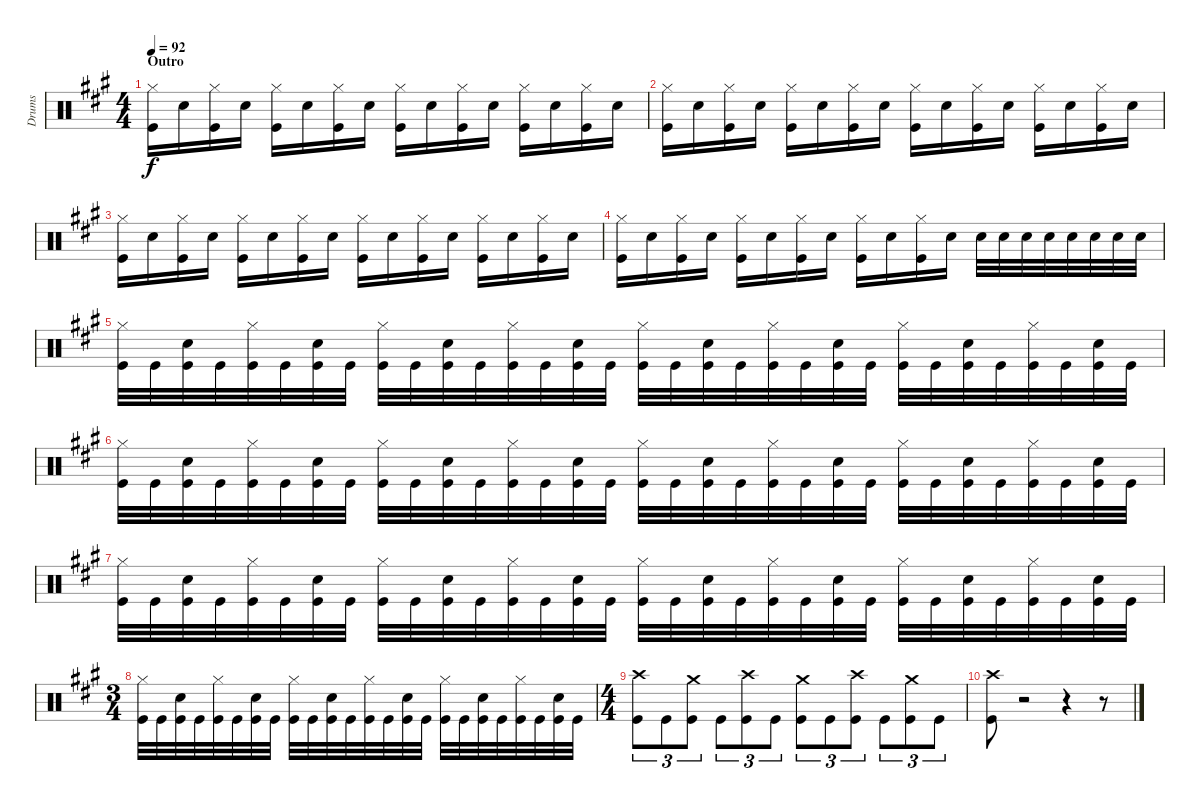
\track ("Drums" "Drums") {instrument percussion}
\staff {score}
\articulation defaults
\ts (4 4)
\section ("" "Outro")
\tempo 92
\clef neutral
\ks f#minor
("Hi-Hat (closed)" "Kick (hit)").16{dy f} "Snare (hit) 2".16 ("Hi-Hat (closed)" "Kick (hit)").16 "Snare (hit) 2".16 ("Hi-Hat (closed)" "Kick (hit)").16 "Snare (hit) 2".16 ("Hi-Hat (closed)" "Kick (hit)").16 "Snare (hit) 2".16 ("Hi-Hat (closed)" "Kick (hit)").16 "Snare (hit) 2".16 ("Hi-Hat (closed)" "Kick (hit)").16 "Snare (hit) 2".16 ("Hi-Hat (closed)" "Kick (hit)").16 "Snare (hit) 2".16 ("Hi-Hat (closed)" "Kick (hit)").16 "Snare (hit) 2".16 |
("Hi-Hat (closed)" "Kick (hit)").16 "Snare (hit) 2".16 ("Hi-Hat (closed)" "Kick (hit)").16 "Snare (hit) 2".16 ("Hi-Hat (closed)" "Kick (hit)").16 "Snare (hit) 2".16 ("Hi-Hat (closed)" "Kick (hit)").16 "Snare (hit) 2".16 ("Hi-Hat (closed)" "Kick (hit)").16 "Snare (hit) 2".16 ("Hi-Hat (closed)" "Kick (hit)").16 "Snare (hit) 2".16 ("Hi-Hat (closed)" "Kick (hit)").16 "Snare (hit) 2".16 ("Hi-Hat (closed)" "Kick (hit)").16 "Snare (hit) 2".16 |
("Hi-Hat (closed)" "Kick (hit)").16 "Snare (hit) 2".16 ("Hi-Hat (closed)" "Kick (hit)").16 "Snare (hit) 2".16 ("Hi-Hat (closed)" "Kick (hit)").16 "Snare (hit) 2".16 ("Hi-Hat (closed)" "Kick (hit)").16 "Snare (hit) 2".16 ("Hi-Hat (closed)" "Kick (hit)").16 "Snare (hit) 2".16 ("Hi-Hat (closed)" "Kick (hit)").16 "Snare (hit) 2".16 ("Hi-Hat (closed)" "Kick (hit)").16 "Snare (hit) 2".16 ("Hi-Hat (closed)" "Kick (hit)").16 "Snare (hit) 2".16 |
("Hi-Hat (closed)" "Kick (hit)").16 "Snare (hit) 2".16 ("Hi-Hat (closed)" "Kick (hit)").16 "Snare (hit) 2".16 ("Hi-Hat (closed)" "Kick (hit)").16 "Snare (hit) 2".16 ("Hi-Hat (closed)" "Kick (hit)").16 "Snare (hit) 2".16 ("Hi-Hat (closed)" "Kick (hit)").16 "Snare (hit) 2".16 ("Hi-Hat (closed)" "Kick (hit)").16 "Snare (hit) 2".16 "Snare (hit) 2".32 "Snare (hit) 2".32 "Snare (hit) 2".32 "Snare (hit) 2".32 "Snare (hit) 2".32 "Snare (hit) 2".32 "Snare (hit) 2".32 "Snare (hit) 2".32 |
("Hi-Hat (closed)" "Kick (hit)").32 "Kick (hit)".32 ("Snare (hit) 2" "Kick (hit)").32 "Kick (hit)".32 ("Hi-Hat (closed)" "Kick (hit)").32 "Kick (hit)".32 ("Snare (hit) 2" "Kick (hit)").32 "Kick (hit)".32 ("Hi-Hat (closed)" "Kick (hit)").32 "Kick (hit)".32 ("Snare (hit) 2" "Kick (hit)").32 "Kick (hit)".32 ("Hi-Hat (closed)" "Kick (hit)").32 "Kick (hit)".32 ("Snare (hit) 2" "Kick (hit)").32 "Kick (hit)".32 ("Hi-Hat (closed)" "Kick (hit)").32 "Kick (hit)".32 ("Snare (hit) 2" "Kick (hit)").32 "Kick (hit)".32 ("Hi-Hat (closed)" "Kick (hit)").32 "Kick (hit)".32 ("Snare (hit) 2" "Kick (hit)").32 "Kick (hit)".32 ("Hi-Hat (closed)" "Kick (hit)").32 "Kick (hit)".32 ("Snare (hit) 2" "Kick (hit)").32 "Kick (hit)".32 ("Hi-Hat (closed)" "Kick (hit)").32 "Kick (hit)".32 ("Snare (hit) 2" "Kick (hit)").32 "Kick (hit)".32 |
("Hi-Hat (closed)" "Kick (hit)").32 "Kick (hit)".32 ("Snare (hit) 2" "Kick (hit)").32 "Kick (hit)".32 ("Hi-Hat (closed)" "Kick (hit)").32 "Kick (hit)".32 ("Snare (hit) 2" "Kick (hit)").32 "Kick (hit)".32 ("Hi-Hat (closed)" "Kick (hit)").32 "Kick (hit)".32 ("Snare (hit) 2" "Kick (hit)").32 "Kick (hit)".32 ("Hi-Hat (closed)" "Kick (hit)").32 "Kick (hit)".32 ("Snare (hit) 2" "Kick (hit)").32 "Kick (hit)".32 ("Hi-Hat (closed)" "Kick (hit)").32 "Kick (hit)".32 ("Snare (hit) 2" "Kick (hit)").32 "Kick (hit)".32 ("Hi-Hat (closed)" "Kick (hit)").32 "Kick (hit)".32 ("Snare (hit) 2" "Kick (hit)").32 "Kick (hit)".32 ("Hi-Hat (closed)" "Kick (hit)").32 "Kick (hit)".32 ("Snare (hit) 2" "Kick (hit)").32 "Kick (hit)".32 ("Hi-Hat (closed)" "Kick (hit)").32 "Kick (hit)".32 ("Snare (hit) 2" "Kick (hit)").32 "Kick (hit)".32 |
("Hi-Hat (closed)" "Kick (hit)").32 "Kick (hit)".32 ("Snare (hit) 2" "Kick (hit)").32 "Kick (hit)".32 ("Hi-Hat (closed)" "Kick (hit)").32 "Kick (hit)".32 ("Snare (hit) 2" "Kick (hit)").32 "Kick (hit)".32 ("Hi-Hat (closed)" "Kick (hit)").32 "Kick (hit)".32 ("Snare (hit) 2" "Kick (hit)").32 "Kick (hit)".32 ("Hi-Hat (closed)" "Kick (hit)").32 "Kick (hit)".32 ("Snare (hit) 2" "Kick (hit)").32 "Kick (hit)".32 ("Hi-Hat (closed)" "Kick (hit)").32 "Kick (hit)".32 ("Snare (hit) 2" "Kick (hit)").32 "Kick (hit)".32 ("Hi-Hat (closed)" "Kick (hit)").32 "Kick (hit)".32 ("Snare (hit) 2" "Kick (hit)").32 "Kick (hit)".32 ("Hi-Hat (closed)" "Kick (hit)").32 "Kick (hit)".32 ("Snare (hit) 2" "Kick (hit)").32 "Kick (hit)".32 ("Hi-Hat (closed)" "Kick (hit)").32 "Kick (hit)".32 ("Snare (hit) 2" "Kick (hit)").32 "Kick (hit)".32 |
\ts (3 4)
("Hi-Hat (closed)" "Kick (hit)").32 "Kick (hit)".32 ("Snare (hit) 2" "Kick (hit)").32 "Kick (hit)".32 ("Hi-Hat (closed)" "Kick (hit)").32 "Kick (hit)".32 ("Snare (hit) 2" "Kick (hit)").32 "Kick (hit)".32 ("Hi-Hat (closed)" "Kick (hit)").32 "Kick (hit)".32 ("Snare (hit) 2" "Kick (hit)").32 "Kick (hit)".32 ("Hi-Hat (closed)" "Kick (hit)").32 "Kick (hit)".32 ("Snare (hit) 2" "Kick (hit)").32 "Kick (hit)".32 ("Hi-Hat (closed)" "Kick (hit)").32 "Kick (hit)".32 ("Snare (hit) 2" "Kick (hit)").32 "Kick (hit)".32 ("Hi-Hat (closed)" "Kick (hit)").32 "Kick (hit)".32 ("Snare (hit) 2" "Kick (hit)").32 "Kick (hit)".32 |
\ts (4 4)
("Crash high (hit)" "Kick (hit)").8{tu (3 2)} "Kick (hit)".8{tu (3 2)} ("Crash medium (hit)" "Kick (hit)").8{tu (3 2)} "Kick (hit)".8{tu (3 2)} ("Crash high (hit)" "Kick (hit)").8{tu (3 2)} "Kick (hit)".8{tu (3 2)} ("Crash medium (hit)" "Kick (hit)").8{tu (3 2)} "Kick (hit)".8{tu (3 2)} ("Crash high (hit)" "Kick (hit)").8{tu (3 2)} "Kick (hit)".8{tu (3 2)} ("Crash medium (hit)" "Kick (hit)").8{tu (3 2)} "Kick (hit)".8{tu (3 2)} |
("Crash high (hit)" "Kick (hit)").8 r.2 r.4 r.8
